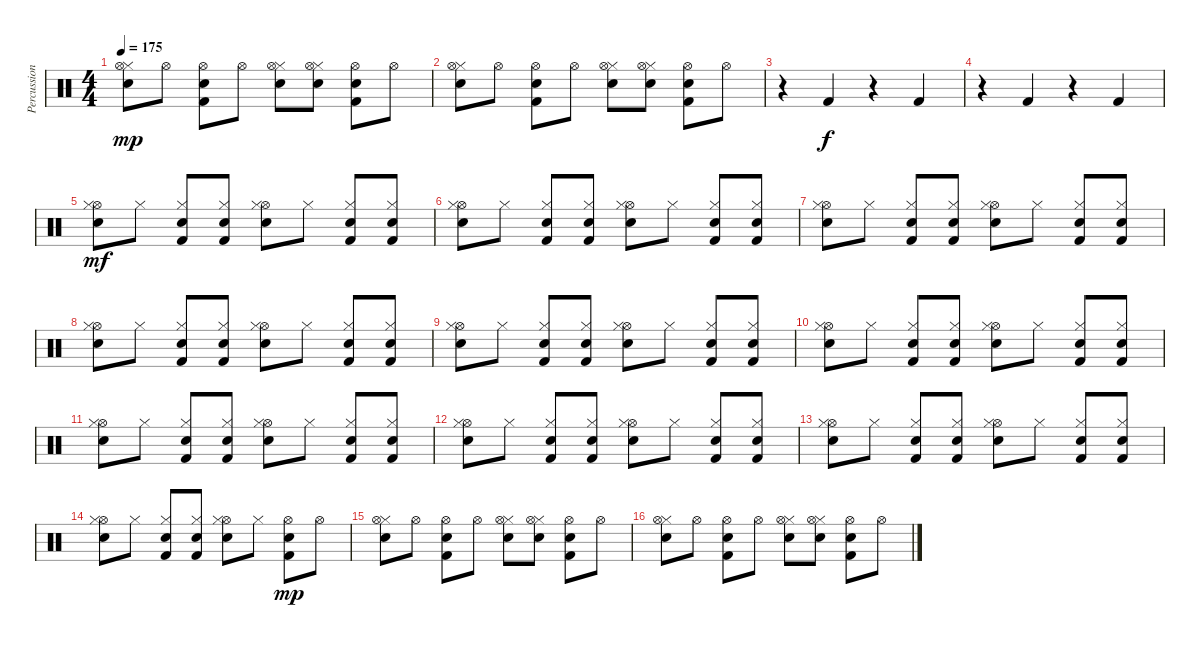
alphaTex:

\track ("Percussions" "Percussion") {instrument percussion}
\staff {score}
\articulation defaults
\ts (4 4)
\tempo 175
\clef neutral
\ks c
("Snare (hit) 2" "Hi-Hat (closed)" "Hi-Hat (open)").8{dy mp} "Hi-Hat (open)".8 ("Kick (hit) 2" "Snare (hit) 2" "Hi-Hat (open)").8 "Hi-Hat (open)".8 ("Snare (hit) 2" "Hi-Hat (closed)" "Hi-Hat (open)").8 ("Snare (hit) 2" "Hi-Hat (closed)" "Hi-Hat (open)").8 ("Kick (hit) 2" "Snare (hit) 2" "Hi-Hat (open)").8 "Hi-Hat (open)".8 |
("Snare (hit) 2" "Hi-Hat (closed)" "Hi-Hat (open)").8 "Hi-Hat (open)".8 ("Kick (hit) 2" "Snare (hit) 2" "Hi-Hat (open)").8 "Hi-Hat (open)".8 ("Snare (hit) 2" "Hi-Hat (closed)" "Hi-Hat (open)").8 ("Snare (hit) 2" "Hi-Hat (closed)" "Hi-Hat (open)").8 ("Kick (hit) 2" "Snare (hit) 2" "Hi-Hat (open)").8 "Hi-Hat (open)".8 |
r.4 "Kick (hit) 2".4{dy f} r.4 "Kick (hit) 2".4 |
r.4 "Kick (hit) 2".4 r.4 "Kick (hit) 2".4 |
("Snare (hit) 2" "Hi-Hat (open)" "Hi-Hat (closed)").8{dy mf} "Hi-Hat (closed)".8 ("Kick (hit) 2" "Snare (hit) 2" "Hi-Hat (closed)").8 ("Kick (hit) 2" "Snare (hit) 2" "Hi-Hat (closed)").8 ("Snare (hit) 2" "Hi-Hat (open)" "Hi-Hat (closed)").8 "Hi-Hat (closed)".8 ("Kick (hit) 2" "Snare (hit) 2" "Hi-Hat (closed)").8 ("Kick (hit) 2" "Snare (hit) 2" "Hi-Hat (closed)").8 |
("Snare (hit) 2" "Hi-Hat (open)" "Hi-Hat (closed)").8 "Hi-Hat (closed)".8 ("Kick (hit) 2" "Snare (hit) 2" "Hi-Hat (closed)").8 ("Kick (hit) 2" "Snare (hit) 2" "Hi-Hat (closed)").8 ("Snare (hit) 2" "Hi-Hat (open)" "Hi-Hat (closed)").8 "Hi-Hat (closed)".8 ("Kick (hit) 2" "Snare (hit) 2" "Hi-Hat (closed)").8 ("Kick (hit) 2" "Snare (hit) 2" "Hi-Hat (closed)").8 |
("Snare (hit) 2" "Hi-Hat (open)" "Hi-Hat (closed)").8 "Hi-Hat (closed)".8 ("Kick (hit) 2" "Snare (hit) 2" "Hi-Hat (closed)").8 ("Kick (hit) 2" "Snare (hit) 2" "Hi-Hat (closed)").8 ("Snare (hit) 2" "Hi-Hat (open)" "Hi-Hat (closed)").8 "Hi-Hat (closed)".8 ("Kick (hit) 2" "Snare (hit) 2" "Hi-Hat (closed)").8 ("Kick (hit) 2" "Snare (hit) 2" "Hi-Hat (closed)").8 |
("Snare (hit) 2" "Hi-Hat (open)" "Hi-Hat (closed)").8 "Hi-Hat (closed)".8 ("Kick (hit) 2" "Snare (hit) 2" "Hi-Hat (closed)").8 ("Kick (hit) 2" "Snare (hit) 2" "Hi-Hat (closed)").8 ("Snare (hit) 2" "Hi-Hat (open)" "Hi-Hat (closed)").8 "Hi-Hat (closed)".8 ("Kick (hit) 2" "Snare (hit) 2" "Hi-Hat (closed)").8 ("Kick (hit) 2" "Snare (hit) 2" "Hi-Hat (closed)").8 |
("Snare (hit) 2" "Hi-Hat (open)" "Hi-Hat (closed)").8 "Hi-Hat (closed)".8 ("Kick (hit) 2" "Snare (hit) 2" "Hi-Hat (closed)").8 ("Kick (hit) 2" "Snare (hit) 2" "Hi-Hat (closed)").8 ("Snare (hit) 2" "Hi-Hat (open)" "Hi-Hat (closed)").8 "Hi-Hat (closed)".8 ("Kick (hit) 2" "Snare (hit) 2" "Hi-Hat (closed)").8 ("Kick (hit) 2" "Snare (hit) 2" "Hi-Hat (closed)").8 |
("Snare (hit) 2" "Hi-Hat (open)" "Hi-Hat (closed)").8 "Hi-Hat (closed)".8 ("Kick (hit) 2" "Snare (hit) 2" "Hi-Hat (closed)").8 ("Kick (hit) 2" "Snare (hit) 2" "Hi-Hat (closed)").8 ("Snare (hit) 2" "Hi-Hat (open)" "Hi-Hat (closed)").8 "Hi-Hat (closed)".8 ("Kick (hit) 2" "Snare (hit) 2" "Hi-Hat (closed)").8 ("Kick (hit) 2" "Snare (hit) 2" "Hi-Hat (closed)").8 |
("Snare (hit) 2" "Hi-Hat (open)" "Hi-Hat (closed)").8 "Hi-Hat (closed)".8 ("Kick (hit) 2" "Snare (hit) 2" "Hi-Hat (closed)").8 ("Kick (hit) 2" "Snare (hit) 2" "Hi-Hat (closed)").8 ("Snare (hit) 2" "Hi-Hat (open)" "Hi-Hat (closed)").8 "Hi-Hat (closed)".8 ("Kick (hit) 2" "Snare (hit) 2" "Hi-Hat (closed)").8 ("Kick (hit) 2" "Snare (hit) 2" "Hi-Hat (closed)").8 |
("Snare (hit) 2" "Hi-Hat (open)" "Hi-Hat (closed)").8 "Hi-Hat (closed)".8 ("Kick (hit) 2" "Snare (hit) 2" "Hi-Hat (closed)").8 ("Kick (hit) 2" "Snare (hit) 2" "Hi-Hat (closed)").8 ("Snare (hit) 2" "Hi-Hat (open)" "Hi-Hat (closed)").8 "Hi-Hat (closed)".8 ("Kick (hit) 2" "Snare (hit) 2" "Hi-Hat (closed)").8 ("Kick (hit) 2" "Snare (hit) 2" "Hi-Hat (closed)").8 |
("Snare (hit) 2" "Hi-Hat (open)" "Hi-Hat (closed)").8 "Hi-Hat (closed)".8 ("Kick (hit) 2" "Snare (hit) 2" "Hi-Hat (closed)").8 ("Kick (hit) 2" "Snare (hit) 2" "Hi-Hat (closed)").8 ("Snare (hit) 2" "Hi-Hat (open)" "Hi-Hat (closed)").8 "Hi-Hat (closed)".8 ("Kick (hit) 2" "Snare (hit) 2" "Hi-Hat (closed)").8 ("Kick (hit) 2" "Snare (hit) 2" "Hi-Hat (closed)").8 |
("Snare (hit) 2" "Hi-Hat (open)" "Hi-Hat (closed)").8 "Hi-Hat (closed)".8 ("Kick (hit) 2" "Snare (hit) 2" "Hi-Hat (closed)").8 ("Kick (hit) 2" "Snare (hit) 2" "Hi-Hat (closed)").8 ("Snare (hit) 2" "Hi-Hat (open)" "Hi-Hat (closed)").8 "Hi-Hat (closed)".8 ("Kick (hit) 2" "Snare (hit) 2" "Hi-Hat (open)").8{dy mp} "Hi-Hat (open)".8 |
("Snare (hit) 2" "Hi-Hat (closed)" "Hi-Hat (open)").8 "Hi-Hat (open)".8 ("Kick (hit) 2" "Snare (hit) 2" "Hi-Hat (open)").8 "Hi-Hat (open)".8 ("Snare (hit) 2" "Hi-Hat (closed)" "Hi-Hat (open)").8 ("Snare (hit) 2" "Hi-Hat (closed)" "Hi-Hat (open)").8 ("Kick (hit) 2" "Snare (hit) 2" "Hi-Hat (open)").8 "Hi-Hat (open)".8 |
("Snare (hit) 2" "Hi-Hat (closed)" "Hi-Hat (open)").8 "Hi-Hat (open)".8 ("Kick (hit) 2" "Snare (hit) 2" "Hi-Hat (open)").8 "Hi-Hat (open)".8 ("Snare (hit) 2" "Hi-Hat (closed)" "Hi-Hat (open)").8 ("Snare (hit) 2" "Hi-Hat (closed)" "Hi-Hat (open)").8 ("Kick (hit) 2" "Snare (hit) 2" "Hi-Hat (open)").8 "Hi-Hat (open)".8
